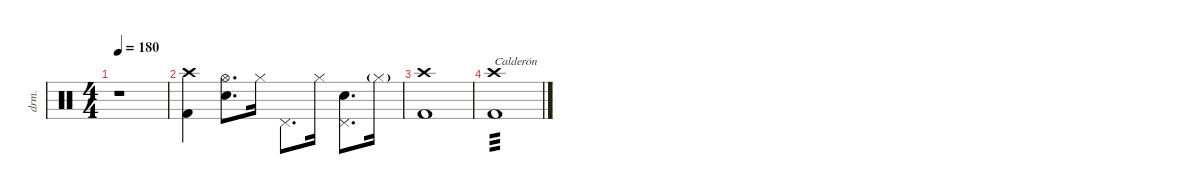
\defaultSystemsLayout 4
\hideDynamics
\bracketExtendMode nobrackets
\otherSystemsTrackNameOrientation horizontal
\track ("Drums" "drm.") {instrument percussion}
\staff {score}
\articulation defaults
\ts (4 4)
\tempo 180
\clef neutral
\ks c
r.1{dy mf} |
("Crash high (hit)" "Kick (hit) 2").4{dy f} ("Hi-Hat (open)" "Snare (hit) 2").8{d} "Hi-Hat (closed)".16 "Pedal Hi-Hat (hit)".8{d} "Hi-Hat (closed)".16 ("Pedal Hi-Hat (hit)" "Snare (hit) 2").8{d} "Hi-Hat (closed)"{g}.16{dy mf} |
("Crash high (hit)" "Kick (hit) 2").1{dy f} |
("Crash high (hit)" "Kick (hit) 2").1{txt "Calderón" tp 3}
